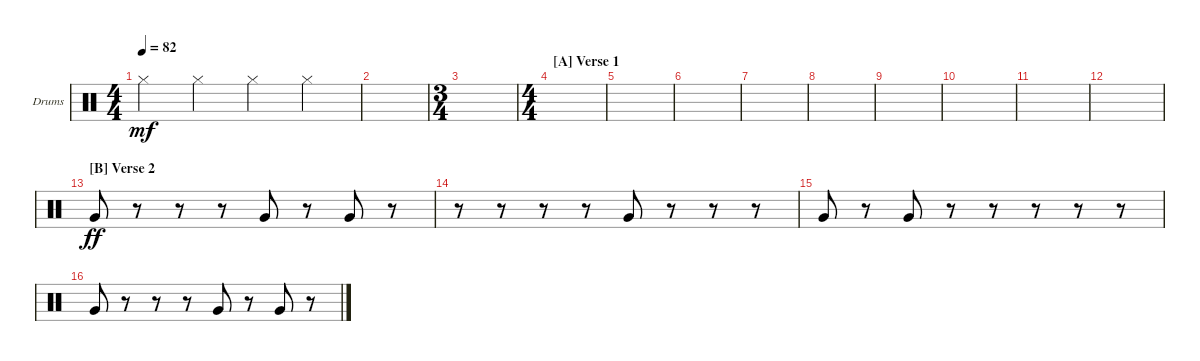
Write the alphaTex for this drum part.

\defaultSystemsLayout 4
\bracketExtendMode groupsimilarinstruments
\firstSystemTrackNameOrientation horizontal
\otherSystemsTrackNameOrientation horizontal
\track ("Drumkit" "Drums") {instrument percussion}
\staff {score}
\articulation defaults
\ts (4 4)
\tempo 82
\clef neutral
\ks c "Hi-Hat (closed)".4{dy mf} "Hi-Hat (closed)".4 "Hi-Hat (closed)".4 "Hi-Hat (closed)".4
|
\scale
0.333333 |
\ts (3 4)
\scale
0.333333 |
\ts (4 4)
\section ("A" "Verse 1")
\scale
0.333333 |
\scale
0.333333 |
\scale
0.333333 |
\scale
0.333333 |
\scale
0.333333 |
\scale
0.333333 |
\scale
0.333333 |
\scale
0.333333 |
\scale
0.333333 |
\section ("B" "Verse 2")
\scale
0.333333 "Very Low Tom (hit)".8{dy ff} r.8 r.8 r.8 "Very Low Tom (hit)".8 r.8 "Very Low Tom (hit)".8 r.8 |
\scale
0.333333 r.8 r.8 r.8 r.8 "Very Low Tom (hit)".8 r.8 r.8 r.8 |
\scale
0.333333 "Very Low Tom (hit)".8 r.8 "Very Low Tom (hit)".8 r.8 r.8 r.8 r.8 r.8 |
\scale
0.333333 "Very Low Tom (hit)".8 r.8 r.8 r.8 "Very Low Tom (hit)".8 r.8 "Very Low Tom (hit)".8 r.8
